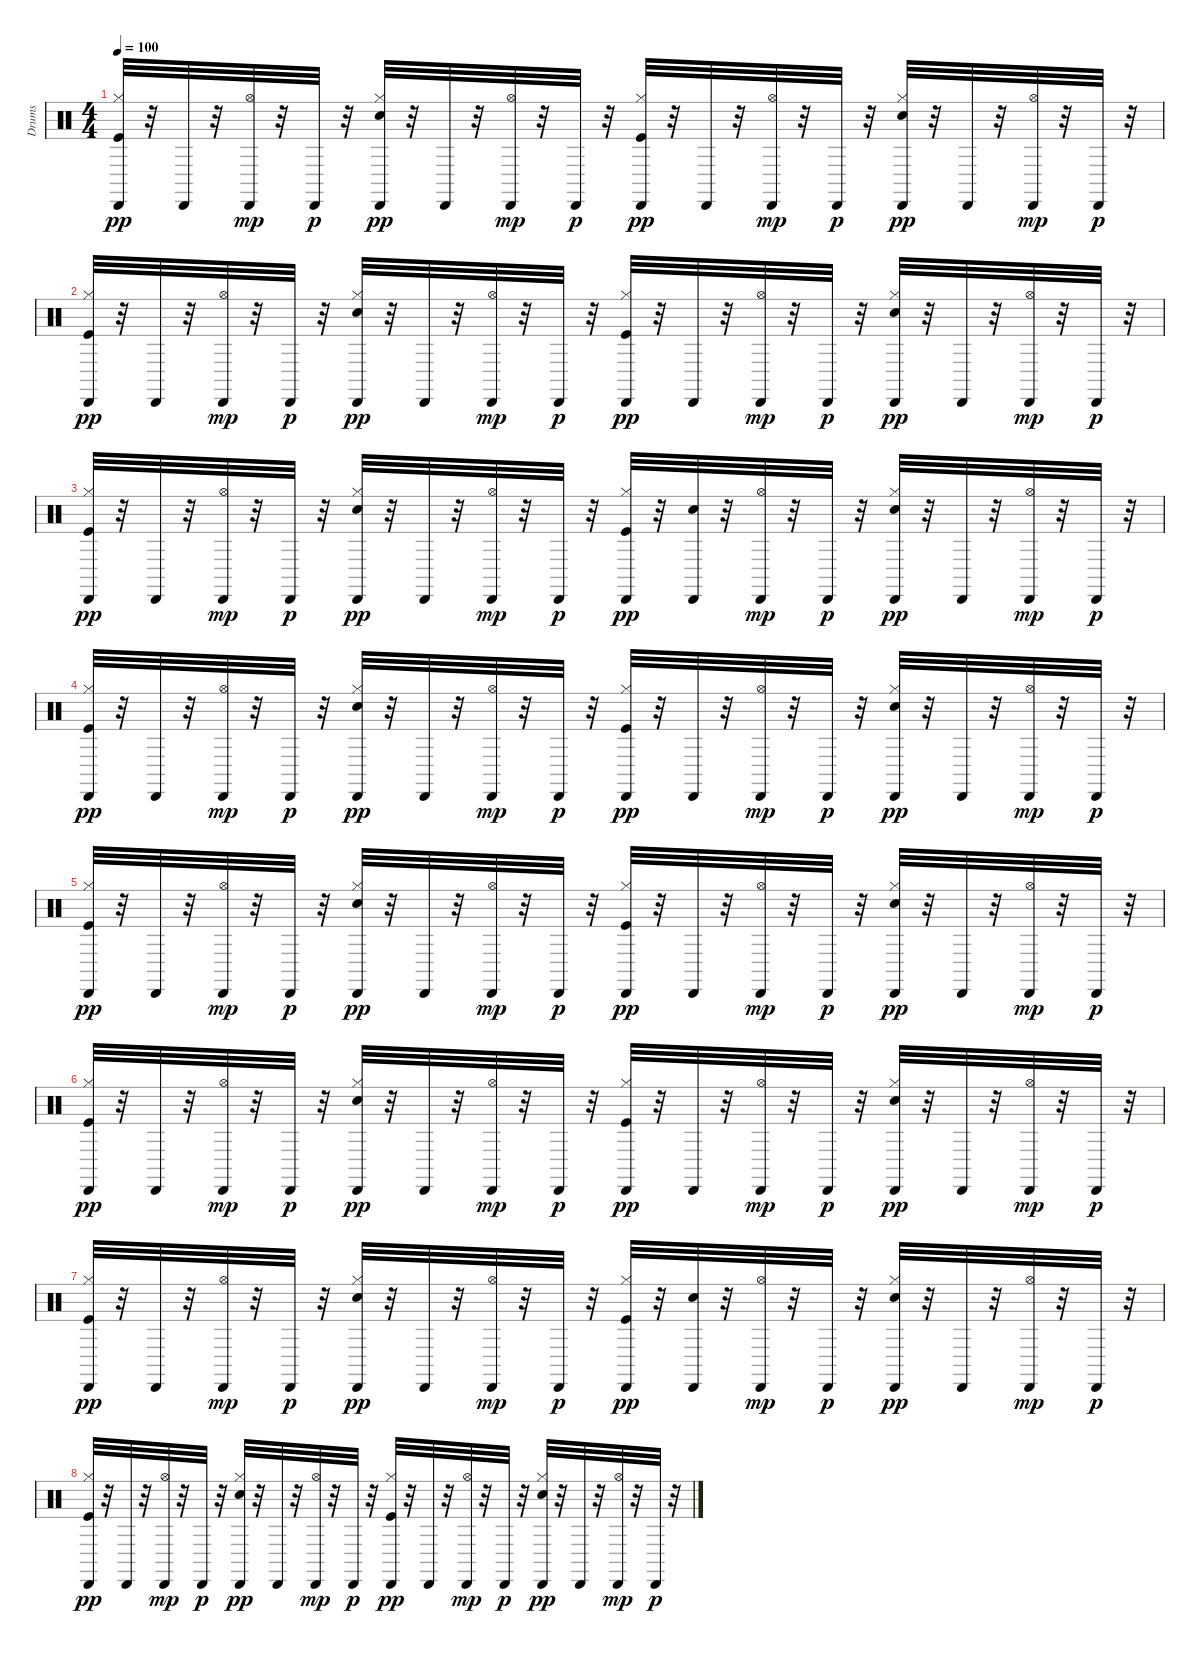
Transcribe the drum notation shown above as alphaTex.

\track ("Drums" "Drums") {instrument percussion}
\staff {score}
\articulation defaults
\ts (4 4)
\tempo 100
\clef neutral
\ks c
("Kick (hit)" "Hi-Hat (closed)" "Cabasa (hit)").32{dy pp} r.32 "Cabasa (hit)".32 r.32 ("Hi-Hat (open)" "Cabasa (hit)").32{dy mp} r.32 "Cabasa (hit)".32{dy p} r.32 ("Electric Snare (hit)" "Hi-Hat (closed)" "Cabasa (hit)").32{dy pp} r.32 "Cabasa (hit)".32 r.32 ("Hi-Hat (open)" "Cabasa (hit)").32{dy mp} r.32 "Cabasa (hit)".32{dy p} r.32 ("Kick (hit)" "Hi-Hat (closed)" "Cabasa (hit)").32{dy pp} r.32 "Cabasa (hit)".32 r.32 ("Hi-Hat (open)" "Cabasa (hit)").32{dy mp} r.32 "Cabasa (hit)".32{dy p} r.32 ("Electric Snare (hit)" "Hi-Hat (closed)" "Cabasa (hit)").32{dy pp} r.32 "Cabasa (hit)".32 r.32 ("Hi-Hat (open)" "Cabasa (hit)").32{dy mp} r.32 "Cabasa (hit)".32{dy p} r.32 |
("Kick (hit)" "Hi-Hat (closed)" "Cabasa (hit)").32{dy pp} r.32 "Cabasa (hit)".32 r.32 ("Hi-Hat (open)" "Cabasa (hit)").32{dy mp} r.32 "Cabasa (hit)".32{dy p} r.32 ("Electric Snare (hit)" "Hi-Hat (closed)" "Cabasa (hit)").32{dy pp} r.32 "Cabasa (hit)".32 r.32 ("Hi-Hat (open)" "Cabasa (hit)").32{dy mp} r.32 "Cabasa (hit)".32{dy p} r.32 ("Kick (hit)" "Hi-Hat (closed)" "Cabasa (hit)").32{dy pp} r.32 "Cabasa (hit)".32 r.32 ("Hi-Hat (open)" "Cabasa (hit)").32{dy mp} r.32 "Cabasa (hit)".32{dy p} r.32 ("Electric Snare (hit)" "Hi-Hat (closed)" "Cabasa (hit)").32{dy pp} r.32 "Cabasa (hit)".32 r.32 ("Hi-Hat (open)" "Cabasa (hit)").32{dy mp} r.32 "Cabasa (hit)".32{dy p} r.32 |
("Kick (hit)" "Hi-Hat (closed)" "Cabasa (hit)").32{dy pp} r.32 "Cabasa (hit)".32 r.32 ("Hi-Hat (open)" "Cabasa (hit)").32{dy mp} r.32 "Cabasa (hit)".32{dy p} r.32 ("Electric Snare (hit)" "Hi-Hat (closed)" "Cabasa (hit)").32{dy pp} r.32 "Cabasa (hit)".32 r.32 ("Hi-Hat (open)" "Cabasa (hit)").32{dy mp} r.32 "Cabasa (hit)".32{dy p} r.32 ("Kick (hit)" "Hi-Hat (closed)" "Cabasa (hit)").32{dy pp} r.32 ("Electric Snare (hit)" "Cabasa (hit)").32 r.32 ("Hi-Hat (open)" "Cabasa (hit)").32{dy mp} r.32 "Cabasa (hit)".32{dy p} r.32 ("Electric Snare (hit)" "Hi-Hat (closed)" "Cabasa (hit)").32{dy pp} r.32 "Cabasa (hit)".32 r.32 ("Hi-Hat (open)" "Cabasa (hit)").32{dy mp} r.32 "Cabasa (hit)".32{dy p} r.32 |
("Kick (hit)" "Hi-Hat (closed)" "Cabasa (hit)").32{dy pp} r.32 "Cabasa (hit)".32 r.32 ("Hi-Hat (open)" "Cabasa (hit)").32{dy mp} r.32 "Cabasa (hit)".32{dy p} r.32 ("Electric Snare (hit)" "Hi-Hat (closed)" "Cabasa (hit)").32{dy pp} r.32 "Cabasa (hit)".32 r.32 ("Hi-Hat (open)" "Cabasa (hit)").32{dy mp} r.32 "Cabasa (hit)".32{dy p} r.32 ("Kick (hit)" "Hi-Hat (closed)" "Cabasa (hit)").32{dy pp} r.32 "Cabasa (hit)".32 r.32 ("Hi-Hat (open)" "Cabasa (hit)").32{dy mp} r.32 "Cabasa (hit)".32{dy p} r.32 ("Electric Snare (hit)" "Hi-Hat (closed)" "Cabasa (hit)").32{dy pp} r.32 "Cabasa (hit)".32 r.32 ("Hi-Hat (open)" "Cabasa (hit)").32{dy mp} r.32 "Cabasa (hit)".32{dy p} r.32 |
("Kick (hit)" "Hi-Hat (closed)" "Cabasa (hit)").32{dy pp} r.32 "Cabasa (hit)".32 r.32 ("Hi-Hat (open)" "Cabasa (hit)").32{dy mp} r.32 "Cabasa (hit)".32{dy p} r.32 ("Electric Snare (hit)" "Hi-Hat (closed)" "Cabasa (hit)").32{dy pp} r.32 "Cabasa (hit)".32 r.32 ("Hi-Hat (open)" "Cabasa (hit)").32{dy mp} r.32 "Cabasa (hit)".32{dy p} r.32 ("Kick (hit)" "Hi-Hat (closed)" "Cabasa (hit)").32{dy pp} r.32 "Cabasa (hit)".32 r.32 ("Hi-Hat (open)" "Cabasa (hit)").32{dy mp} r.32 "Cabasa (hit)".32{dy p} r.32 ("Electric Snare (hit)" "Hi-Hat (closed)" "Cabasa (hit)").32{dy pp} r.32 "Cabasa (hit)".32 r.32 ("Hi-Hat (open)" "Cabasa (hit)").32{dy mp} r.32 "Cabasa (hit)".32{dy p} r.32 |
("Kick (hit)" "Hi-Hat (closed)" "Cabasa (hit)").32{dy pp} r.32 "Cabasa (hit)".32 r.32 ("Hi-Hat (open)" "Cabasa (hit)").32{dy mp} r.32 "Cabasa (hit)".32{dy p} r.32 ("Electric Snare (hit)" "Hi-Hat (closed)" "Cabasa (hit)").32{dy pp} r.32 "Cabasa (hit)".32 r.32 ("Hi-Hat (open)" "Cabasa (hit)").32{dy mp} r.32 "Cabasa (hit)".32{dy p} r.32 ("Kick (hit)" "Hi-Hat (closed)" "Cabasa (hit)").32{dy pp} r.32 "Cabasa (hit)".32 r.32 ("Hi-Hat (open)" "Cabasa (hit)").32{dy mp} r.32 "Cabasa (hit)".32{dy p} r.32 ("Electric Snare (hit)" "Hi-Hat (closed)" "Cabasa (hit)").32{dy pp} r.32 "Cabasa (hit)".32 r.32 ("Hi-Hat (open)" "Cabasa (hit)").32{dy mp} r.32 "Cabasa (hit)".32{dy p} r.32 |
("Kick (hit)" "Hi-Hat (closed)" "Cabasa (hit)").32{dy pp} r.32 "Cabasa (hit)".32 r.32 ("Hi-Hat (open)" "Cabasa (hit)").32{dy mp} r.32 "Cabasa (hit)".32{dy p} r.32 ("Electric Snare (hit)" "Hi-Hat (closed)" "Cabasa (hit)").32{dy pp} r.32 "Cabasa (hit)".32 r.32 ("Hi-Hat (open)" "Cabasa (hit)").32{dy mp} r.32 "Cabasa (hit)".32{dy p} r.32 ("Kick (hit)" "Hi-Hat (closed)" "Cabasa (hit)").32{dy pp} r.32 ("Electric Snare (hit)" "Cabasa (hit)").32 r.32 ("Hi-Hat (open)" "Cabasa (hit)").32{dy mp} r.32 "Cabasa (hit)".32{dy p} r.32 ("Electric Snare (hit)" "Hi-Hat (closed)" "Cabasa (hit)").32{dy pp} r.32 "Cabasa (hit)".32 r.32 ("Hi-Hat (open)" "Cabasa (hit)").32{dy mp} r.32 "Cabasa (hit)".32{dy p} r.32 |
("Kick (hit)" "Hi-Hat (closed)" "Cabasa (hit)").32{dy pp} r.32 "Cabasa (hit)".32 r.32 ("Hi-Hat (open)" "Cabasa (hit)").32{dy mp} r.32 "Cabasa (hit)".32{dy p} r.32 ("Electric Snare (hit)" "Hi-Hat (closed)" "Cabasa (hit)").32{dy pp} r.32 "Cabasa (hit)".32 r.32 ("Hi-Hat (open)" "Cabasa (hit)").32{dy mp} r.32 "Cabasa (hit)".32{dy p} r.32 ("Kick (hit)" "Hi-Hat (closed)" "Cabasa (hit)").32{dy pp} r.32 "Cabasa (hit)".32 r.32 ("Hi-Hat (open)" "Cabasa (hit)").32{dy mp} r.32 "Cabasa (hit)".32{dy p} r.32 ("Electric Snare (hit)" "Hi-Hat (closed)" "Cabasa (hit)").32{dy pp} r.32 "Cabasa (hit)".32 r.32 ("Hi-Hat (open)" "Cabasa (hit)").32{dy mp} r.32 "Cabasa (hit)".32{dy p} r.32
